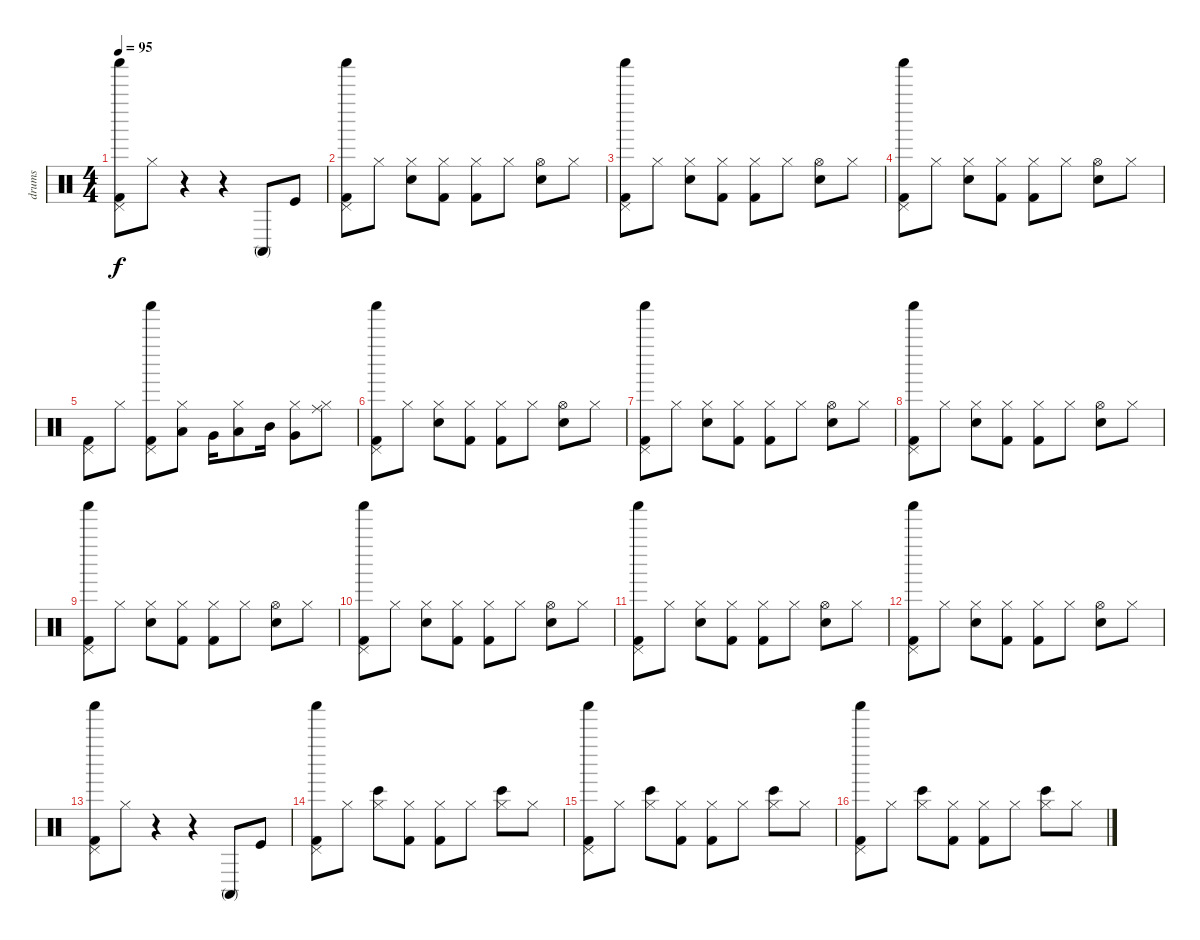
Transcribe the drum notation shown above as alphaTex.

\track ("drums" "drums") {instrument percussion}
\staff {score}
\articulation defaults
\ts (4 4)
\tempo 95
\clef neutral
\ks c
("Kick (hit) 2" "Shaker (hit)" "Pedal Hi-Hat (hit)").8{dy f} "Hi-Hat (closed)".8 r.4 r.4 "Conga high (mute)".8 "Kick (hit)".8 |
("Kick (hit) 2" "Shaker (hit)" "Pedal Hi-Hat (hit)").8 "Hi-Hat (closed)".8 ("Snare (hit) 2" "Hi-Hat (closed)").8 ("Kick (hit) 2" "Hi-Hat (closed)").8 ("Kick (hit) 2" "Hi-Hat (closed)").8 "Hi-Hat (closed)".8 ("Snare (hit) 2" "Hi-Hat (open)").8 "Hi-Hat (closed)".8 |
("Kick (hit) 2" "Shaker (hit)" "Pedal Hi-Hat (hit)").8 "Hi-Hat (closed)".8 ("Snare (hit) 2" "Hi-Hat (closed)").8 ("Kick (hit) 2" "Hi-Hat (closed)").8 ("Kick (hit) 2" "Hi-Hat (closed)").8 "Hi-Hat (closed)".8 ("Snare (hit) 2" "Hi-Hat (open)").8 "Hi-Hat (closed)".8 |
("Kick (hit) 2" "Shaker (hit)" "Pedal Hi-Hat (hit)").8 "Hi-Hat (closed)".8 ("Snare (hit) 2" "Hi-Hat (closed)").8 ("Kick (hit) 2" "Hi-Hat (closed)").8 ("Kick (hit) 2" "Hi-Hat (closed)").8 "Hi-Hat (closed)".8 ("Snare (hit) 2" "Hi-Hat (open)").8 "Hi-Hat (closed)".8 |
("Kick (hit) 2" "Pedal Hi-Hat (hit)").8 "Hi-Hat (closed)".8 ("Kick (hit) 2" "Shaker (hit)" "Pedal Hi-Hat (hit)").8 ("Low Floor Tom (hit)" "Hi-Hat (closed)").8 "Very Low Tom (hit)".16 ("Low Tom (hit)" "Hi-Hat (closed)").8 "Mid Tom (hit)".16 ("Very Low Tom (hit)" "Hi-Hat (closed)").8 ("Ride (middle)" "Hi-Hat (closed)").8 |
("Kick (hit) 2" "Shaker (hit)" "Pedal Hi-Hat (hit)").8 "Hi-Hat (closed)".8 ("Snare (hit) 2" "Hi-Hat (closed)").8 ("Kick (hit) 2" "Hi-Hat (closed)").8 ("Kick (hit) 2" "Hi-Hat (closed)").8 "Hi-Hat (closed)".8 ("Snare (hit) 2" "Hi-Hat (open)").8 "Hi-Hat (closed)".8 |
("Kick (hit) 2" "Shaker (hit)" "Pedal Hi-Hat (hit)").8 "Hi-Hat (closed)".8 ("Snare (hit) 2" "Hi-Hat (closed)").8 ("Kick (hit) 2" "Hi-Hat (closed)").8 ("Kick (hit) 2" "Hi-Hat (closed)").8 "Hi-Hat (closed)".8 ("Snare (hit) 2" "Hi-Hat (open)").8 "Hi-Hat (closed)".8 |
("Kick (hit) 2" "Shaker (hit)" "Pedal Hi-Hat (hit)").8 "Hi-Hat (closed)".8 ("Snare (hit) 2" "Hi-Hat (closed)").8 ("Kick (hit) 2" "Hi-Hat (closed)").8 ("Kick (hit) 2" "Hi-Hat (closed)").8 "Hi-Hat (closed)".8 ("Snare (hit) 2" "Hi-Hat (open)").8 "Hi-Hat (closed)".8 |
("Kick (hit) 2" "Shaker (hit)" "Pedal Hi-Hat (hit)").8 "Hi-Hat (closed)".8 ("Snare (hit) 2" "Hi-Hat (closed)").8 ("Kick (hit) 2" "Hi-Hat (closed)").8 ("Kick (hit) 2" "Hi-Hat (closed)").8 "Hi-Hat (closed)".8 ("Snare (hit) 2" "Hi-Hat (open)").8 "Hi-Hat (closed)".8 |
("Kick (hit) 2" "Shaker (hit)" "Pedal Hi-Hat (hit)").8 "Hi-Hat (closed)".8 ("Snare (hit) 2" "Hi-Hat (closed)").8 ("Kick (hit) 2" "Hi-Hat (closed)").8 ("Kick (hit) 2" "Hi-Hat (closed)").8 "Hi-Hat (closed)".8 ("Snare (hit) 2" "Hi-Hat (open)").8 "Hi-Hat (closed)".8 |
("Kick (hit) 2" "Shaker (hit)" "Pedal Hi-Hat (hit)").8 "Hi-Hat (closed)".8 ("Snare (hit) 2" "Hi-Hat (closed)").8 ("Kick (hit) 2" "Hi-Hat (closed)").8 ("Kick (hit) 2" "Hi-Hat (closed)").8 "Hi-Hat (closed)".8 ("Snare (hit) 2" "Hi-Hat (open)").8 "Hi-Hat (closed)".8 |
("Kick (hit) 2" "Shaker (hit)" "Pedal Hi-Hat (hit)").8 "Hi-Hat (closed)".8 ("Snare (hit) 2" "Hi-Hat (closed)").8 ("Kick (hit) 2" "Hi-Hat (closed)").8 ("Kick (hit) 2" "Hi-Hat (closed)").8 "Hi-Hat (closed)".8 ("Snare (hit) 2" "Hi-Hat (open)").8 "Hi-Hat (closed)".8 |
("Kick (hit) 2" "Shaker (hit)" "Pedal Hi-Hat (hit)").8 "Hi-Hat (closed)".8 r.4 r.4 "Conga high (mute)".8 "Kick (hit)".8 |
("Kick (hit) 2" "Shaker (hit)" "Pedal Hi-Hat (hit)").8 "Hi-Hat (closed)".8 ("Bongo High (hit)" "Hi-Hat (closed)").8 ("Kick (hit) 2" "Hi-Hat (closed)").8 ("Kick (hit) 2" "Hi-Hat (closed)").8 "Hi-Hat (closed)".8 ("Bongo High (hit)" "Hi-Hat (closed)").8 "Hi-Hat (closed)".8 |
("Kick (hit) 2" "Shaker (hit)" "Pedal Hi-Hat (hit)").8 "Hi-Hat (closed)".8 ("Bongo High (hit)" "Hi-Hat (closed)").8 ("Kick (hit) 2" "Hi-Hat (closed)").8 ("Kick (hit) 2" "Hi-Hat (closed)").8 "Hi-Hat (closed)".8 ("Bongo High (hit)" "Hi-Hat (closed)").8 "Hi-Hat (closed)".8 |
("Kick (hit) 2" "Shaker (hit)" "Pedal Hi-Hat (hit)").8 "Hi-Hat (closed)".8 ("Bongo High (hit)" "Hi-Hat (closed)").8 ("Kick (hit) 2" "Hi-Hat (closed)").8 ("Kick (hit) 2" "Hi-Hat (closed)").8 "Hi-Hat (closed)".8 ("Bongo High (hit)" "Hi-Hat (closed)").8 "Hi-Hat (closed)".8
